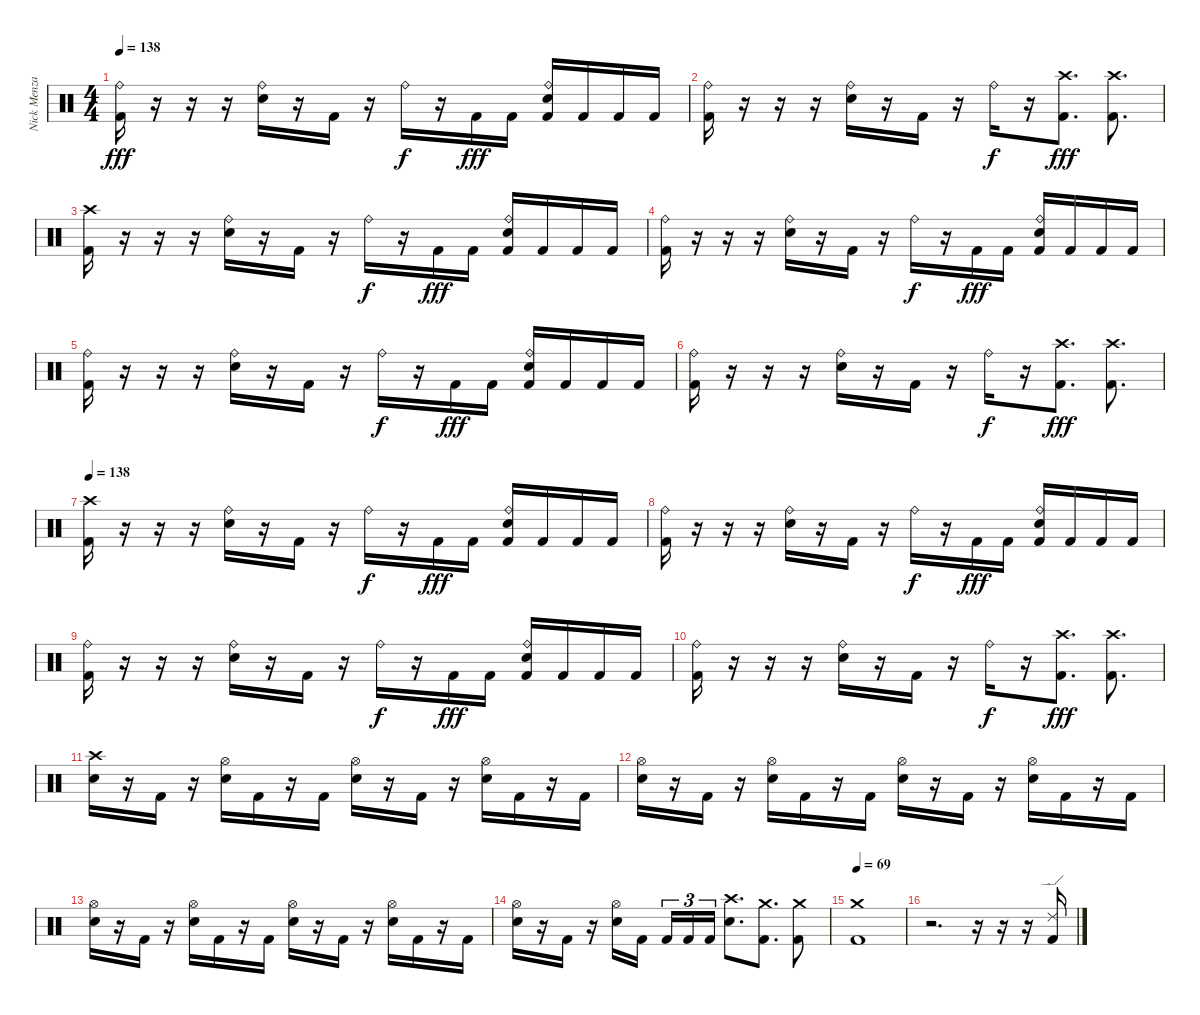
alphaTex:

\track ("Nick Menza" "Nick Menza") {instrument percussion}
\staff {score}
\articulation defaults
\ts (4 4)
\tempo 138
\clef neutral
\ks c
("Kick (hit) 2" "Ride (bell)").16{dy fff} r.16 r.16 r.16 ("Electric Snare (hit)" "Ride (bell)").16 r.16 "Kick (hit) 2".16 r.16 "Ride (bell)".16{dy f} r.16 "Kick (hit) 2".16{dy fff} "Kick (hit) 2".16 ("Kick (hit) 2" "Electric Snare (hit)" "Ride (bell)").16 "Kick (hit) 2".16 "Kick (hit) 2".16 "Kick (hit) 2".16 |
("Kick (hit) 2" "Ride (bell)").16 r.16 r.16 r.16 ("Electric Snare (hit)" "Ride (bell)").16 r.16 "Kick (hit) 2".16 r.16 "Ride (bell)".16{dy f} r.16 ("Kick (hit) 2" "Crash high (hit)").8{d dy fff} ("Kick (hit) 2" "Crash high (hit)").8{d} |
("Kick (hit) 2" "Crash high (hit)").16 r.16 r.16 r.16 ("Electric Snare (hit)" "Ride (bell)").16 r.16 "Kick (hit) 2".16 r.16 "Ride (bell)".16{dy f} r.16 "Kick (hit) 2".16{dy fff} "Kick (hit) 2".16 ("Kick (hit) 2" "Electric Snare (hit)" "Ride (bell)").16 "Kick (hit) 2".16 "Kick (hit) 2".16 "Kick (hit) 2".16 |
("Kick (hit) 2" "Ride (bell)").16 r.16 r.16 r.16 ("Electric Snare (hit)" "Ride (bell)").16 r.16 "Kick (hit) 2".16 r.16 "Ride (bell)".16{dy f} r.16 "Kick (hit) 2".16{dy fff} "Kick (hit) 2".16 ("Kick (hit) 2" "Electric Snare (hit)" "Ride (bell)").16 "Kick (hit) 2".16 "Kick (hit) 2".16 "Kick (hit) 2".16 |
("Kick (hit) 2" "Ride (bell)").16 r.16 r.16 r.16 ("Electric Snare (hit)" "Ride (bell)").16 r.16 "Kick (hit) 2".16 r.16 "Ride (bell)".16{dy f} r.16 "Kick (hit) 2".16{dy fff} "Kick (hit) 2".16 ("Kick (hit) 2" "Electric Snare (hit)" "Ride (bell)").16 "Kick (hit) 2".16 "Kick (hit) 2".16 "Kick (hit) 2".16 |
("Kick (hit) 2" "Ride (bell)").16 r.16 r.16 r.16 ("Electric Snare (hit)" "Ride (bell)").16 r.16 "Kick (hit) 2".16 r.16 "Ride (bell)".16{dy f} r.16 ("Kick (hit) 2" "Crash high (hit)").8{d dy fff} ("Kick (hit) 2" "Crash high (hit)").8{d} |
\tempo 138
("Kick (hit) 2" "Crash high (hit)").16 r.16 r.16 r.16 ("Electric Snare (hit)" "Ride (bell)").16 r.16 "Kick (hit) 2".16 r.16 "Ride (bell)".16{dy f} r.16 "Kick (hit) 2".16{dy fff} "Kick (hit) 2".16 ("Kick (hit) 2" "Electric Snare (hit)" "Ride (bell)").16 "Kick (hit) 2".16 "Kick (hit) 2".16 "Kick (hit) 2".16 |
("Kick (hit) 2" "Ride (bell)").16 r.16 r.16 r.16 ("Electric Snare (hit)" "Ride (bell)").16 r.16 "Kick (hit) 2".16 r.16 "Ride (bell)".16{dy f} r.16 "Kick (hit) 2".16{dy fff} "Kick (hit) 2".16 ("Kick (hit) 2" "Electric Snare (hit)" "Ride (bell)").16 "Kick (hit) 2".16 "Kick (hit) 2".16 "Kick (hit) 2".16 |
("Kick (hit) 2" "Ride (bell)").16 r.16 r.16 r.16 ("Electric Snare (hit)" "Ride (bell)").16 r.16 "Kick (hit) 2".16 r.16 "Ride (bell)".16{dy f} r.16 "Kick (hit) 2".16{dy fff} "Kick (hit) 2".16 ("Kick (hit) 2" "Electric Snare (hit)" "Ride (bell)").16 "Kick (hit) 2".16 "Kick (hit) 2".16 "Kick (hit) 2".16 |
("Kick (hit) 2" "Ride (bell)").16 r.16 r.16 r.16 ("Electric Snare (hit)" "Ride (bell)").16 r.16 "Kick (hit) 2".16 r.16 "Ride (bell)".16{dy f} r.16 ("Kick (hit) 2" "Crash high (hit)").8{d dy fff} ("Kick (hit) 2" "Crash high (hit)").8{d} |
("Electric Snare (hit)" "Crash high (hit)").16 r.16 "Kick (hit) 2".16 r.16 ("Electric Snare (hit)" "Hi-Hat (open)").16 "Kick (hit) 2".16 r.16 "Kick (hit) 2".16 ("Electric Snare (hit)" "Hi-Hat (open)").16 r.16 "Kick (hit) 2".16 r.16 ("Electric Snare (hit)" "Hi-Hat (open)").16 "Kick (hit) 2".16 r.16 "Kick (hit) 2".16 |
("Electric Snare (hit)" "Hi-Hat (open)").16 r.16 "Kick (hit) 2".16 r.16 ("Electric Snare (hit)" "Hi-Hat (open)").16 "Kick (hit) 2".16 r.16 "Kick (hit) 2".16 ("Electric Snare (hit)" "Hi-Hat (open)").16 r.16 "Kick (hit) 2".16 r.16 ("Electric Snare (hit)" "Hi-Hat (open)").16 "Kick (hit) 2".16 r.16 "Kick (hit) 2".16 |
("Electric Snare (hit)" "Hi-Hat (open)").16 r.16 "Kick (hit) 2".16 r.16 ("Electric Snare (hit)" "Hi-Hat (open)").16 "Kick (hit) 2".16 r.16 "Kick (hit) 2".16 ("Electric Snare (hit)" "Hi-Hat (open)").16 r.16 "Kick (hit) 2".16 r.16 ("Electric Snare (hit)" "Hi-Hat (open)").16 "Kick (hit) 2".16 r.16 "Kick (hit) 2".16 |
("Electric Snare (hit)" "Hi-Hat (open)").16 r.16 "Kick (hit) 2".16 r.16 ("Electric Snare (hit)" "Hi-Hat (open)").16 "Kick (hit) 2".16 "Kick (hit) 2".16{tu (3 2)} "Kick (hit) 2".16{tu (3 2)} "Kick (hit) 2".16{tu (3 2)} ("Electric Snare (hit)" "Crash high (hit)").8{d} ("Kick (hit) 2" "Crash medium (hit)").8{d} ("Kick (hit) 2" "Crash medium (hit)").8 |
\tempo 69
("Kick (hit) 2" "Crash medium (hit)").1 |
r.2{d} r.16 r.16 r.16 ("Kick (hit) 2" "Ride (edge) 2").16
